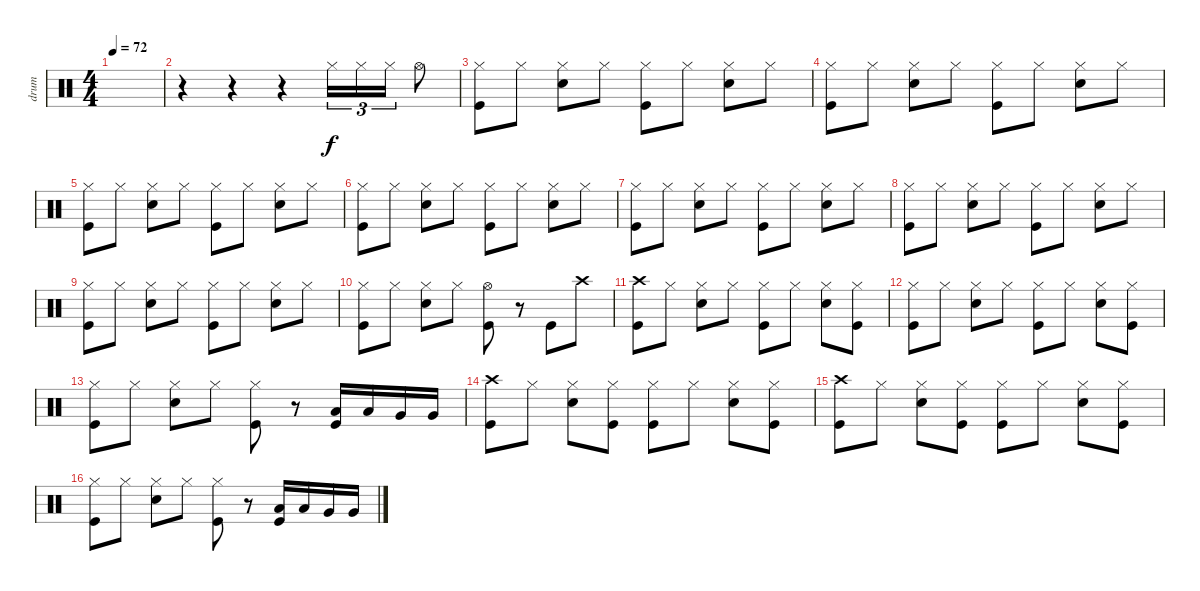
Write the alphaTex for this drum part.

\track ("drum" "drum") {instrument percussion}
\staff {score}
\articulation defaults
\ts (4 4)
\tempo 72
\clef neutral
\ks c
|
r.4 r.4 r.4 "Hi-Hat (closed)".16{tu (3 2)} "Hi-Hat (closed)".16{tu (3 2)} "Hi-Hat (closed)".16{tu (3 2)} "Hi-Hat (open)".8 |
("Hi-Hat (closed)" "Kick (hit)").8 "Hi-Hat (closed)".8 ("Hi-Hat (closed)" "Snare (hit) 2").8 "Hi-Hat (closed)".8 ("Hi-Hat (closed)" "Kick (hit)").8 "Hi-Hat (closed)".8 ("Hi-Hat (closed)" "Snare (hit) 2").8 "Hi-Hat (closed)".8 |
("Hi-Hat (closed)" "Kick (hit)").8 "Hi-Hat (closed)".8 ("Hi-Hat (closed)" "Snare (hit) 2").8 "Hi-Hat (closed)".8 ("Hi-Hat (closed)" "Kick (hit)").8 "Hi-Hat (closed)".8 ("Hi-Hat (closed)" "Snare (hit) 2").8 "Hi-Hat (closed)".8 |
("Hi-Hat (closed)" "Kick (hit)").8 "Hi-Hat (closed)".8 ("Hi-Hat (closed)" "Snare (hit) 2").8 "Hi-Hat (closed)".8 ("Hi-Hat (closed)" "Kick (hit)").8 "Hi-Hat (closed)".8 ("Hi-Hat (closed)" "Snare (hit) 2").8 "Hi-Hat (closed)".8 |
("Hi-Hat (closed)" "Kick (hit)").8 "Hi-Hat (closed)".8 ("Hi-Hat (closed)" "Snare (hit) 2").8 "Hi-Hat (closed)".8 ("Hi-Hat (closed)" "Kick (hit)").8 "Hi-Hat (closed)".8 ("Hi-Hat (closed)" "Snare (hit) 2").8 "Hi-Hat (closed)".8 |
("Hi-Hat (closed)" "Kick (hit)").8 "Hi-Hat (closed)".8 ("Hi-Hat (closed)" "Snare (hit) 2").8 "Hi-Hat (closed)".8 ("Hi-Hat (closed)" "Kick (hit)").8 "Hi-Hat (closed)".8 ("Hi-Hat (closed)" "Snare (hit) 2").8 "Hi-Hat (closed)".8 |
("Hi-Hat (closed)" "Kick (hit)").8 "Hi-Hat (closed)".8 ("Hi-Hat (closed)" "Snare (hit) 2").8 "Hi-Hat (closed)".8 ("Hi-Hat (closed)" "Kick (hit)").8 "Hi-Hat (closed)".8 ("Hi-Hat (closed)" "Snare (hit) 2").8 "Hi-Hat (closed)".8 |
("Hi-Hat (closed)" "Kick (hit)").8 "Hi-Hat (closed)".8 ("Hi-Hat (closed)" "Snare (hit) 2").8 "Hi-Hat (closed)".8 ("Hi-Hat (closed)" "Kick (hit)").8 "Hi-Hat (closed)".8 ("Hi-Hat (closed)" "Snare (hit) 2").8 "Hi-Hat (closed)".8 |
("Hi-Hat (closed)" "Kick (hit)").8 "Hi-Hat (closed)".8 ("Hi-Hat (closed)" "Snare (hit) 2").8 "Hi-Hat (closed)".8 ("Hi-Hat (open)" "Kick (hit)").8 r.8 "Kick (hit)".8 "Crash high (hit)".8 |
("Crash high (hit)" "Kick (hit)").8 "Hi-Hat (closed)".8 ("Hi-Hat (closed)" "Snare (hit) 2").8 "Hi-Hat (closed)".8 ("Hi-Hat (closed)" "Kick (hit)").8 "Hi-Hat (closed)".8 ("Hi-Hat (closed)" "Snare (hit) 2").8 ("Hi-Hat (closed)" "Kick (hit)").8 |
("Hi-Hat (closed)" "Kick (hit)").8 "Hi-Hat (closed)".8 ("Hi-Hat (closed)" "Snare (hit) 2").8 "Hi-Hat (closed)".8 ("Hi-Hat (closed)" "Kick (hit)").8 "Hi-Hat (closed)".8 ("Hi-Hat (closed)" "Snare (hit) 2").8 ("Hi-Hat (closed)" "Kick (hit)").8 |
("Hi-Hat (closed)" "Kick (hit)").8 "Hi-Hat (closed)".8 ("Hi-Hat (closed)" "Snare (hit) 2").8 "Hi-Hat (closed)".8 ("Hi-Hat (closed)" "Kick (hit)").8 r.8 ("Low Tom (hit)" "Kick (hit)").16 "Low Tom (hit)".16 "Very Low Tom (hit)".16 "Very Low Tom (hit)".16 |
("Crash high (hit)" "Kick (hit)").8 "Hi-Hat (closed)".8 ("Hi-Hat (closed)" "Snare (hit) 2").8 ("Hi-Hat (closed)" "Kick (hit)").8 ("Hi-Hat (closed)" "Kick (hit)").8 "Hi-Hat (closed)".8 ("Hi-Hat (closed)" "Snare (hit) 2").8 ("Hi-Hat (closed)" "Kick (hit)").8 |
("Crash high (hit)" "Kick (hit)").8 "Hi-Hat (closed)".8 ("Hi-Hat (closed)" "Snare (hit) 2").8 ("Hi-Hat (closed)" "Kick (hit)").8 ("Hi-Hat (closed)" "Kick (hit)").8 "Hi-Hat (closed)".8 ("Hi-Hat (closed)" "Snare (hit) 2").8 ("Hi-Hat (closed)" "Kick (hit)").8 |
("Hi-Hat (closed)" "Kick (hit)").8 "Hi-Hat (closed)".8 ("Hi-Hat (closed)" "Snare (hit) 2").8 "Hi-Hat (closed)".8 ("Hi-Hat (closed)" "Kick (hit)").8 r.8 ("Low Tom (hit)" "Kick (hit)").16 "Low Tom (hit)".16 "Very Low Tom (hit)".16 "Very Low Tom (hit)".16
